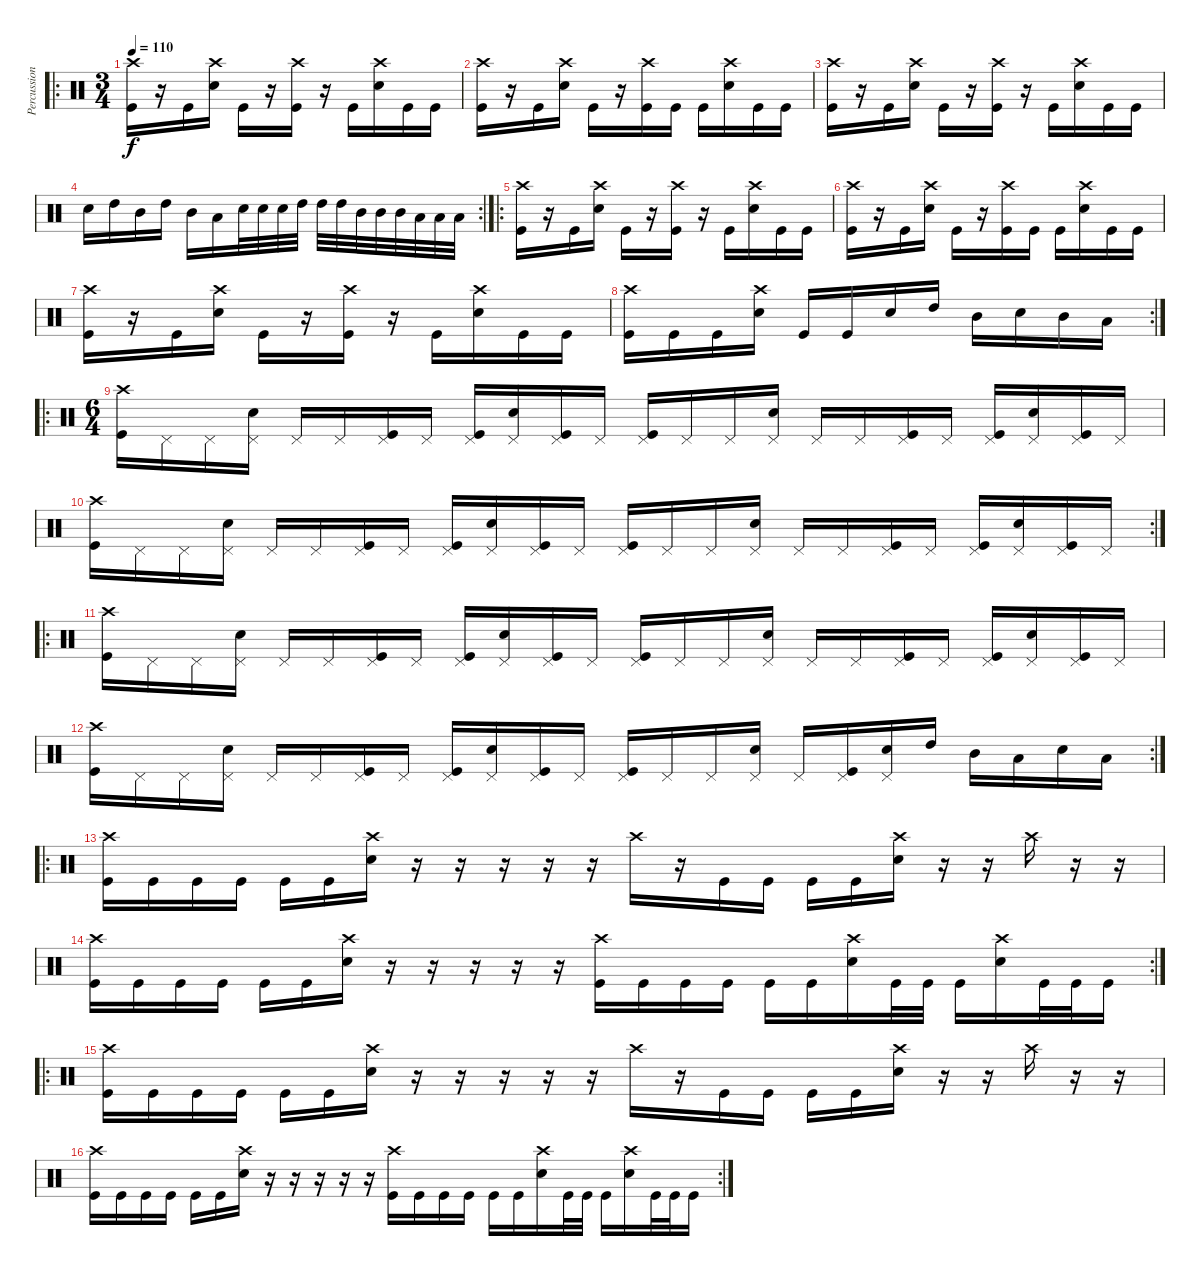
\track ("Percussion" "Percussion") {instrument percussion}
\staff {score}
\articulation defaults
\ro
\ts (3 4)
\tempo 110
\clef neutral
\ks c
("Crash high (hit)" "Kick (hit)").16{dy f} r.16 "Kick (hit)".16 ("Crash high (hit)" "Electric Snare (hit)").16 "Kick (hit)".16 r.16 ("Crash high (hit)" "Kick (hit)").16 r.16 "Kick (hit)".16 ("Crash high (hit)" "Electric Snare (hit)").16 "Kick (hit)".16 "Kick (hit)".16 |
("Crash high (hit)" "Kick (hit)").16 r.16 "Kick (hit)".16 ("Crash high (hit)" "Electric Snare (hit)").16 "Kick (hit)".16 r.16 ("Crash high (hit)" "Kick (hit)").16 "Kick (hit)".16 "Kick (hit)".16 ("Crash high (hit)" "Electric Snare (hit)").16 "Kick (hit)".16 "Kick (hit)".16 |
("Crash high (hit)" "Kick (hit)").16 r.16 "Kick (hit)".16 ("Crash high (hit)" "Electric Snare (hit)").16 "Kick (hit)".16 r.16 ("Crash high (hit)" "Kick (hit)").16 r.16 "Kick (hit)".16 ("Crash high (hit)" "Electric Snare (hit)").16 "Kick (hit)".16 "Kick (hit)".16 |
\rc 2 "Electric Snare (hit)".16 "High Tom (hit)".16 "Mid Tom (hit)".16 "High Tom (hit)".16 "Mid Tom (hit)".16 "Low Tom (hit)".16 "Electric Snare (hit)".32 "Electric Snare (hit)".32 "Electric Snare (hit)".32 "High Tom (hit)".32 "High Tom (hit)".32 "High Tom (hit)".32 "Mid Tom (hit)".32 "Mid Tom (hit)".32 "Mid Tom (hit)".32 "Low Tom (hit)".32 "Low Tom (hit)".32 "Low Tom (hit)".32
|
\ro
("Crash high (hit)" "Kick (hit)").16 r.16 "Kick (hit)".16 ("Crash high (hit)" "Electric Snare (hit)").16 "Kick (hit)".16 r.16 ("Crash high (hit)" "Kick (hit)").16 r.16 "Kick (hit)".16 ("Crash high (hit)" "Electric Snare (hit)").16 "Kick (hit)".16 "Kick (hit)".16 |
("Crash high (hit)" "Kick (hit)").16 r.16 "Kick (hit)".16 ("Crash high (hit)" "Electric Snare (hit)").16 "Kick (hit)".16 r.16 ("Crash high (hit)" "Kick (hit)").16 "Kick (hit)".16 "Kick (hit)".16 ("Crash high (hit)" "Electric Snare (hit)").16 "Kick (hit)".16 "Kick (hit)".16 |
("Crash high (hit)" "Kick (hit)").16 r.16 "Kick (hit)".16 ("Crash high (hit)" "Electric Snare (hit)").16 "Kick (hit)".16 r.16 ("Crash high (hit)" "Kick (hit)").16 r.16 "Kick (hit)".16 ("Crash high (hit)" "Electric Snare (hit)").16 "Kick (hit)".16 "Kick (hit)".16 |
\rc 2
("Crash high (hit)" "Kick (hit)").16 "Kick (hit)".16 "Kick (hit)".16 ("Crash high (hit)" "Electric Snare (hit)").16 "Kick (hit)".16 "Kick (hit)".16 "Electric Snare (hit)".16 "High Tom (hit)".16 "Mid Tom (hit)".16 "Electric Snare (hit)".16 "Mid Tom (hit)".16 "Low Tom (hit)".16 |
\ro
\ts (6 4)
("Crash high (hit)" "Kick (hit)").16 "Pedal Hi-Hat (hit)".16 "Pedal Hi-Hat (hit)".16 ("Pedal Hi-Hat (hit)" "Electric Snare (hit)").16 "Pedal Hi-Hat (hit)".16 "Pedal Hi-Hat (hit)".16 ("Pedal Hi-Hat (hit)" "Kick (hit)").16 "Pedal Hi-Hat (hit)".16 ("Pedal Hi-Hat (hit)" "Kick (hit)").16 ("Pedal Hi-Hat (hit)" "Electric Snare (hit)").16 ("Pedal Hi-Hat (hit)" "Kick (hit)").16 "Pedal Hi-Hat (hit)".16 ("Pedal Hi-Hat (hit)" "Kick (hit)").16 "Pedal Hi-Hat (hit)".16 "Pedal Hi-Hat (hit)".16 ("Pedal Hi-Hat (hit)" "Electric Snare (hit)").16 "Pedal Hi-Hat (hit)".16 "Pedal Hi-Hat (hit)".16 ("Pedal Hi-Hat (hit)" "Kick (hit)").16 "Pedal Hi-Hat (hit)".16 ("Pedal Hi-Hat (hit)" "Kick (hit)").16 ("Pedal Hi-Hat (hit)" "Electric Snare (hit)").16 ("Pedal Hi-Hat (hit)" "Kick (hit)").16 "Pedal Hi-Hat (hit)".16 |
\rc 2
("Crash high (hit)" "Kick (hit)").16 "Pedal Hi-Hat (hit)".16 "Pedal Hi-Hat (hit)".16 ("Pedal Hi-Hat (hit)" "Electric Snare (hit)").16 "Pedal Hi-Hat (hit)".16 "Pedal Hi-Hat (hit)".16 ("Pedal Hi-Hat (hit)" "Kick (hit)").16 "Pedal Hi-Hat (hit)".16 ("Pedal Hi-Hat (hit)" "Kick (hit)").16 ("Pedal Hi-Hat (hit)" "Electric Snare (hit)").16 ("Pedal Hi-Hat (hit)" "Kick (hit)").16 "Pedal Hi-Hat (hit)".16 ("Pedal Hi-Hat (hit)" "Kick (hit)").16 "Pedal Hi-Hat (hit)".16 "Pedal Hi-Hat (hit)".16 ("Pedal Hi-Hat (hit)" "Electric Snare (hit)").16 "Pedal Hi-Hat (hit)".16 "Pedal Hi-Hat (hit)".16 ("Pedal Hi-Hat (hit)" "Kick (hit)").16 "Pedal Hi-Hat (hit)".16 ("Pedal Hi-Hat (hit)" "Kick (hit)").16 ("Pedal Hi-Hat (hit)" "Electric Snare (hit)").16 ("Pedal Hi-Hat (hit)" "Kick (hit)").16 "Pedal Hi-Hat (hit)".16 |
\ro
("Crash high (hit)" "Kick (hit)").16 "Pedal Hi-Hat (hit)".16 "Pedal Hi-Hat (hit)".16 ("Pedal Hi-Hat (hit)" "Electric Snare (hit)").16 "Pedal Hi-Hat (hit)".16 "Pedal Hi-Hat (hit)".16 ("Pedal Hi-Hat (hit)" "Kick (hit)").16 "Pedal Hi-Hat (hit)".16 ("Pedal Hi-Hat (hit)" "Kick (hit)").16 ("Pedal Hi-Hat (hit)" "Electric Snare (hit)").16 ("Pedal Hi-Hat (hit)" "Kick (hit)").16 "Pedal Hi-Hat (hit)".16 ("Pedal Hi-Hat (hit)" "Kick (hit)").16 "Pedal Hi-Hat (hit)".16 "Pedal Hi-Hat (hit)".16 ("Pedal Hi-Hat (hit)" "Electric Snare (hit)").16 "Pedal Hi-Hat (hit)".16 "Pedal Hi-Hat (hit)".16 ("Pedal Hi-Hat (hit)" "Kick (hit)").16 "Pedal Hi-Hat (hit)".16 ("Pedal Hi-Hat (hit)" "Kick (hit)").16 ("Pedal Hi-Hat (hit)" "Electric Snare (hit)").16 ("Pedal Hi-Hat (hit)" "Kick (hit)").16 "Pedal Hi-Hat (hit)".16 |
\rc 2
("Crash high (hit)" "Kick (hit)").16 "Pedal Hi-Hat (hit)".16 "Pedal Hi-Hat (hit)".16 ("Pedal Hi-Hat (hit)" "Electric Snare (hit)").16 "Pedal Hi-Hat (hit)".16 "Pedal Hi-Hat (hit)".16 ("Pedal Hi-Hat (hit)" "Kick (hit)").16 "Pedal Hi-Hat (hit)".16 ("Pedal Hi-Hat (hit)" "Kick (hit)").16 ("Pedal Hi-Hat (hit)" "Electric Snare (hit)").16 ("Pedal Hi-Hat (hit)" "Kick (hit)").16 "Pedal Hi-Hat (hit)".16 ("Pedal Hi-Hat (hit)" "Kick (hit)").16 "Pedal Hi-Hat (hit)".16 "Pedal Hi-Hat (hit)".16 ("Pedal Hi-Hat (hit)" "Electric Snare (hit)").16 "Pedal Hi-Hat (hit)".16 ("Pedal Hi-Hat (hit)" "Kick (hit)").16 ("Pedal Hi-Hat (hit)" "Electric Snare (hit)").16 "High Tom (hit)".16 "Mid Tom (hit)".16 "Low Tom (hit)".16 "Electric Snare (hit)".16 "Low Tom (hit)".16 |
\ro
("Crash high (hit)" "Kick (hit)").16 "Kick (hit)".16 "Kick (hit)".16 "Kick (hit)".16 "Kick (hit)".16 "Kick (hit)".16 ("Crash high (hit)" "Electric Snare (hit)").16 r.16 r.16 r.16 r.16 r.16 "Crash high (hit)".16 r.16 "Kick (hit)".16 "Kick (hit)".16 "Kick (hit)".16 "Kick (hit)".16 ("Crash high (hit)" "Electric Snare (hit)").16 r.16 r.16 "Crash high (hit)".16 r.16 r.16 |
\rc 2
("Crash high (hit)" "Kick (hit)").16 "Kick (hit)".16 "Kick (hit)".16 "Kick (hit)".16 "Kick (hit)".16 "Kick (hit)".16 ("Crash high (hit)" "Electric Snare (hit)").16 r.16 r.16 r.16 r.16 r.16 ("Crash high (hit)" "Kick (hit)").16 "Kick (hit)".16 "Kick (hit)".16 "Kick (hit)".16 "Kick (hit)".16 "Kick (hit)".16 ("Crash high (hit)" "Electric Snare (hit)").16 "Kick (hit)".32 "Kick (hit)".32 "Kick (hit)".16 ("Crash high (hit)" "Electric Snare (hit)").16 "Kick (hit)".32 "Kick (hit)".32 "Kick (hit)".16 |
\ro
("Crash high (hit)" "Kick (hit)").16 "Kick (hit)".16 "Kick (hit)".16 "Kick (hit)".16 "Kick (hit)".16 "Kick (hit)".16 ("Crash high (hit)" "Electric Snare (hit)").16 r.16 r.16 r.16 r.16 r.16 "Crash high (hit)".16 r.16 "Kick (hit)".16 "Kick (hit)".16 "Kick (hit)".16 "Kick (hit)".16 ("Crash high (hit)" "Electric Snare (hit)").16 r.16 r.16 "Crash high (hit)".16 r.16 r.16 |
\rc 2
("Crash high (hit)" "Kick (hit)").16 "Kick (hit)".16 "Kick (hit)".16 "Kick (hit)".16 "Kick (hit)".16 "Kick (hit)".16 ("Crash high (hit)" "Electric Snare (hit)").16 r.16 r.16 r.16 r.16 r.16 ("Crash high (hit)" "Kick (hit)").16 "Kick (hit)".16 "Kick (hit)".16 "Kick (hit)".16 "Kick (hit)".16 "Kick (hit)".16 ("Crash high (hit)" "Electric Snare (hit)").16 "Kick (hit)".32 "Kick (hit)".32 "Kick (hit)".16 ("Crash high (hit)" "Electric Snare (hit)").16 "Kick (hit)".32 "Kick (hit)".32 "Kick (hit)".16
